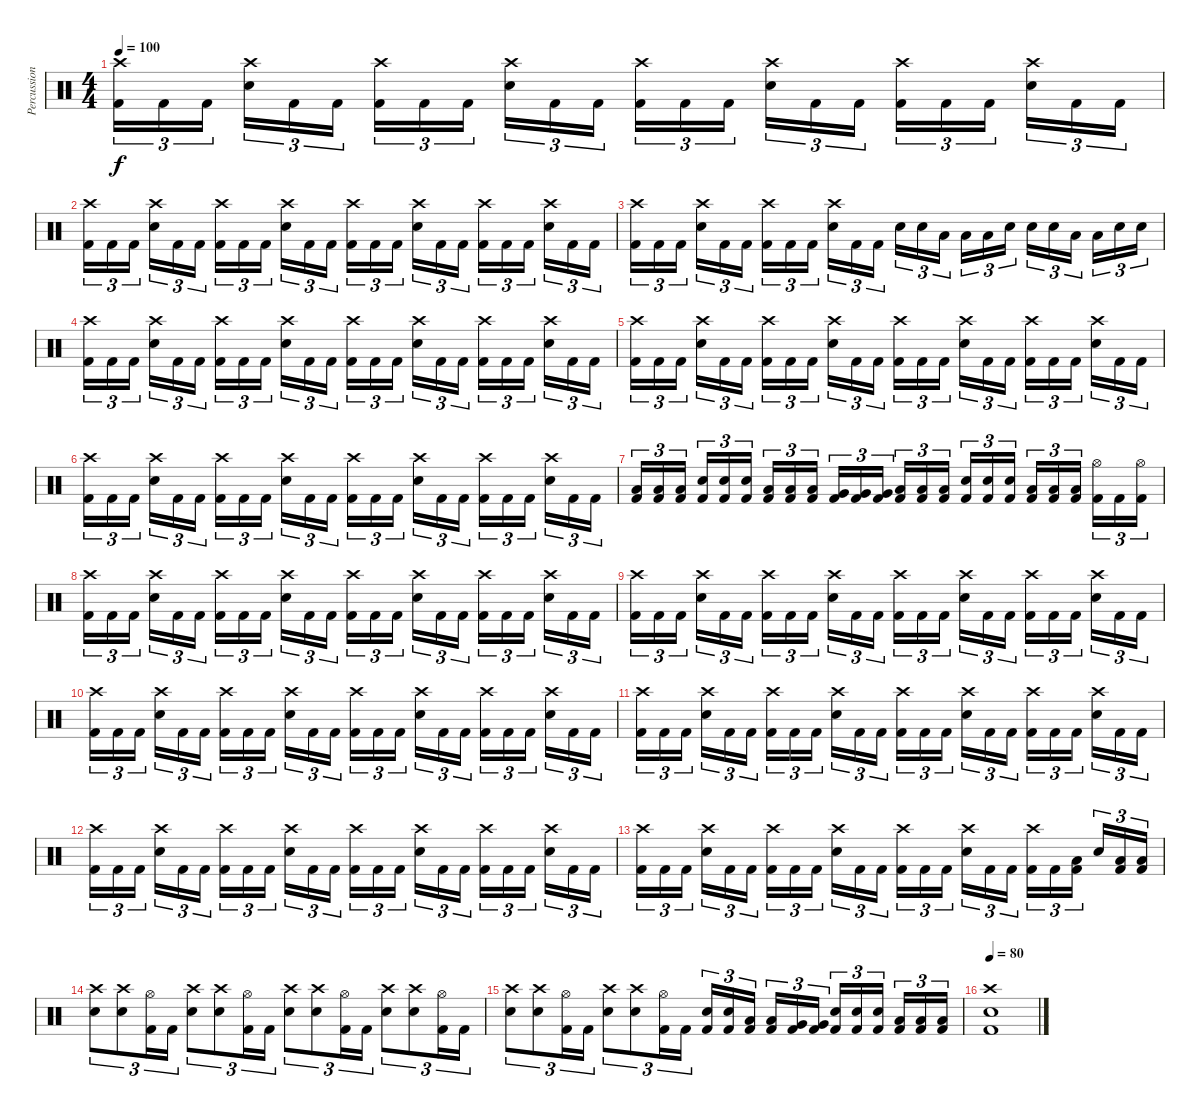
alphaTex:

\track ("Percussion" "Percussion") {instrument percussion}
\staff {score}
\articulation defaults
\ts (4 4)
\tempo 100
\clef neutral
\ks c
("Crash high (hit)" "Kick (hit) 2").16{tu (3 2) dy f} "Kick (hit) 2".16{tu (3 2)} "Kick (hit) 2".16{tu (3 2)} ("Crash high (hit)" "Electric Snare (hit)").16{tu (3 2)} "Kick (hit) 2".16{tu (3 2)} "Kick (hit) 2".16{tu (3 2)} ("Crash high (hit)" "Kick (hit) 2").16{tu (3 2)} "Kick (hit) 2".16{tu (3 2)} "Kick (hit) 2".16{tu (3 2)} ("Crash high (hit)" "Electric Snare (hit)").16{tu (3 2)} "Kick (hit) 2".16{tu (3 2)} "Kick (hit) 2".16{tu (3 2)} ("Crash high (hit)" "Kick (hit) 2").16{tu (3 2)} "Kick (hit) 2".16{tu (3 2)} "Kick (hit) 2".16{tu (3 2)} ("Crash high (hit)" "Electric Snare (hit)").16{tu (3 2)} "Kick (hit) 2".16{tu (3 2)} "Kick (hit) 2".16{tu (3 2)} ("Crash high (hit)" "Kick (hit) 2").16{tu (3 2)} "Kick (hit) 2".16{tu (3 2)} "Kick (hit) 2".16{tu (3 2)} ("Crash high (hit)" "Electric Snare (hit)").16{tu (3 2)} "Kick (hit) 2".16{tu (3 2)} "Kick (hit) 2".16{tu (3 2)} |
("Crash high (hit)" "Kick (hit) 2").16{tu (3 2)} "Kick (hit) 2".16{tu (3 2)} "Kick (hit) 2".16{tu (3 2)} ("Crash high (hit)" "Electric Snare (hit)").16{tu (3 2)} "Kick (hit) 2".16{tu (3 2)} "Kick (hit) 2".16{tu (3 2)} ("Crash high (hit)" "Kick (hit) 2").16{tu (3 2)} "Kick (hit) 2".16{tu (3 2)} "Kick (hit) 2".16{tu (3 2)} ("Crash high (hit)" "Electric Snare (hit)").16{tu (3 2)} "Kick (hit) 2".16{tu (3 2)} "Kick (hit) 2".16{tu (3 2)} ("Crash high (hit)" "Kick (hit) 2").16{tu (3 2)} "Kick (hit) 2".16{tu (3 2)} "Kick (hit) 2".16{tu (3 2)} ("Crash high (hit)" "Electric Snare (hit)").16{tu (3 2)} "Kick (hit) 2".16{tu (3 2)} "Kick (hit) 2".16{tu (3 2)} ("Crash high (hit)" "Kick (hit) 2").16{tu (3 2)} "Kick (hit) 2".16{tu (3 2)} "Kick (hit) 2".16{tu (3 2)} ("Crash high (hit)" "Electric Snare (hit)").16{tu (3 2)} "Kick (hit) 2".16{tu (3 2)} "Kick (hit) 2".16{tu (3 2)} |
("Crash high (hit)" "Kick (hit) 2").16{tu (3 2)} "Kick (hit) 2".16{tu (3 2)} "Kick (hit) 2".16{tu (3 2)} ("Crash high (hit)" "Electric Snare (hit)").16{tu (3 2)} "Kick (hit) 2".16{tu (3 2)} "Kick (hit) 2".16{tu (3 2)} ("Crash high (hit)" "Kick (hit) 2").16{tu (3 2)} "Kick (hit) 2".16{tu (3 2)} "Kick (hit) 2".16{tu (3 2)} ("Crash high (hit)" "Electric Snare (hit)").16{tu (3 2)} "Kick (hit) 2".16{tu (3 2)} "Kick (hit) 2".16{tu (3 2)} "Electric Snare (hit)".16{tu (3 2)} "Electric Snare (hit)".16{tu (3 2)} "Low Tom (hit)".16{tu (3 2)} "Low Tom (hit)".16{tu (3 2)} "Low Tom (hit)".16{tu (3 2)} "Electric Snare (hit)".16{tu (3 2)} "Electric Snare (hit)".16{tu (3 2)} "Electric Snare (hit)".16{tu (3 2)} "Low Tom (hit)".16{tu (3 2)} "Low Tom (hit)".16{tu (3 2)} "Electric Snare (hit)".16{tu (3 2)} "Electric Snare (hit)".16{tu (3 2)} |
("Crash high (hit)" "Kick (hit) 2").16{tu (3 2)} "Kick (hit) 2".16{tu (3 2)} "Kick (hit) 2".16{tu (3 2)} ("Crash high (hit)" "Electric Snare (hit)").16{tu (3 2)} "Kick (hit) 2".16{tu (3 2)} "Kick (hit) 2".16{tu (3 2)} ("Crash high (hit)" "Kick (hit) 2").16{tu (3 2)} "Kick (hit) 2".16{tu (3 2)} "Kick (hit) 2".16{tu (3 2)} ("Crash high (hit)" "Electric Snare (hit)").16{tu (3 2)} "Kick (hit) 2".16{tu (3 2)} "Kick (hit) 2".16{tu (3 2)} ("Crash high (hit)" "Kick (hit) 2").16{tu (3 2)} "Kick (hit) 2".16{tu (3 2)} "Kick (hit) 2".16{tu (3 2)} ("Crash high (hit)" "Electric Snare (hit)").16{tu (3 2)} "Kick (hit) 2".16{tu (3 2)} "Kick (hit) 2".16{tu (3 2)} ("Crash high (hit)" "Kick (hit) 2").16{tu (3 2)} "Kick (hit) 2".16{tu (3 2)} "Kick (hit) 2".16{tu (3 2)} ("Crash high (hit)" "Electric Snare (hit)").16{tu (3 2)} "Kick (hit) 2".16{tu (3 2)} "Kick (hit) 2".16{tu (3 2)} |
("Crash high (hit)" "Kick (hit) 2").16{tu (3 2)} "Kick (hit) 2".16{tu (3 2)} "Kick (hit) 2".16{tu (3 2)} ("Crash high (hit)" "Electric Snare (hit)").16{tu (3 2)} "Kick (hit) 2".16{tu (3 2)} "Kick (hit) 2".16{tu (3 2)} ("Crash high (hit)" "Kick (hit) 2").16{tu (3 2)} "Kick (hit) 2".16{tu (3 2)} "Kick (hit) 2".16{tu (3 2)} ("Crash high (hit)" "Electric Snare (hit)").16{tu (3 2)} "Kick (hit) 2".16{tu (3 2)} "Kick (hit) 2".16{tu (3 2)} ("Crash high (hit)" "Kick (hit) 2").16{tu (3 2)} "Kick (hit) 2".16{tu (3 2)} "Kick (hit) 2".16{tu (3 2)} ("Crash high (hit)" "Electric Snare (hit)").16{tu (3 2)} "Kick (hit) 2".16{tu (3 2)} "Kick (hit) 2".16{tu (3 2)} ("Crash high (hit)" "Kick (hit) 2").16{tu (3 2)} "Kick (hit) 2".16{tu (3 2)} "Kick (hit) 2".16{tu (3 2)} ("Crash high (hit)" "Electric Snare (hit)").16{tu (3 2)} "Kick (hit) 2".16{tu (3 2)} "Kick (hit) 2".16{tu (3 2)} |
("Crash high (hit)" "Kick (hit) 2").16{tu (3 2)} "Kick (hit) 2".16{tu (3 2)} "Kick (hit) 2".16{tu (3 2)} ("Crash high (hit)" "Electric Snare (hit)").16{tu (3 2)} "Kick (hit) 2".16{tu (3 2)} "Kick (hit) 2".16{tu (3 2)} ("Crash high (hit)" "Kick (hit) 2").16{tu (3 2)} "Kick (hit) 2".16{tu (3 2)} "Kick (hit) 2".16{tu (3 2)} ("Crash high (hit)" "Electric Snare (hit)").16{tu (3 2)} "Kick (hit) 2".16{tu (3 2)} "Kick (hit) 2".16{tu (3 2)} ("Crash high (hit)" "Kick (hit) 2").16{tu (3 2)} "Kick (hit) 2".16{tu (3 2)} "Kick (hit) 2".16{tu (3 2)} ("Crash high (hit)" "Electric Snare (hit)").16{tu (3 2)} "Kick (hit) 2".16{tu (3 2)} "Kick (hit) 2".16{tu (3 2)} ("Crash high (hit)" "Kick (hit) 2").16{tu (3 2)} "Kick (hit) 2".16{tu (3 2)} "Kick (hit) 2".16{tu (3 2)} ("Crash high (hit)" "Electric Snare (hit)").16{tu (3 2)} "Kick (hit) 2".16{tu (3 2)} "Kick (hit) 2".16{tu (3 2)} |
("Low Tom (hit)" "Kick (hit) 2").16{tu (3 2)} ("Low Tom (hit)" "Kick (hit) 2").16{tu (3 2)} ("Low Tom (hit)" "Kick (hit) 2").16{tu (3 2)} ("Electric Snare (hit)" "Kick (hit) 2").16{tu (3 2)} ("Electric Snare (hit)" "Kick (hit) 2").16{tu (3 2)} ("Electric Snare (hit)" "Kick (hit) 2").16{tu (3 2)} ("Low Tom (hit)" "Kick (hit) 2").16{tu (3 2)} ("Low Tom (hit)" "Kick (hit) 2").16{tu (3 2)} ("Low Tom (hit)" "Kick (hit) 2").16{tu (3 2)} ("Very Low Tom (hit)" "Kick (hit) 2").16{tu (3 2)} ("Very Low Tom (hit)" "Kick (hit) 2").16{tu (3 2)} ("Very Low Tom (hit)" "Kick (hit) 2").16{tu (3 2)} ("Low Tom (hit)" "Kick (hit) 2").16{tu (3 2)} ("Low Tom (hit)" "Kick (hit) 2").16{tu (3 2)} ("Low Tom (hit)" "Kick (hit) 2").16{tu (3 2)} ("Electric Snare (hit)" "Kick (hit) 2").16{tu (3 2)} ("Electric Snare (hit)" "Kick (hit) 2").16{tu (3 2)} ("Electric Snare (hit)" "Kick (hit) 2").16{tu (3 2)} ("Low Tom (hit)" "Kick (hit) 2").16{tu (3 2)} ("Low Tom (hit)" "Kick (hit) 2").16{tu (3 2)} ("Low Tom (hit)" "Kick (hit) 2").16{tu (3 2)} ("Hi-Hat (open)" "Kick (hit) 2").16{tu (3 2)} "Kick (hit) 2".16{tu (3 2)} ("Hi-Hat (open)" "Kick (hit) 2").16{tu (3 2)} |
("Crash high (hit)" "Kick (hit) 2").16{tu (3 2)} "Kick (hit) 2".16{tu (3 2)} "Kick (hit) 2".16{tu (3 2)} ("Crash high (hit)" "Electric Snare (hit)").16{tu (3 2)} "Kick (hit) 2".16{tu (3 2)} "Kick (hit) 2".16{tu (3 2)} ("Crash high (hit)" "Kick (hit) 2").16{tu (3 2)} "Kick (hit) 2".16{tu (3 2)} "Kick (hit) 2".16{tu (3 2)} ("Crash high (hit)" "Electric Snare (hit)").16{tu (3 2)} "Kick (hit) 2".16{tu (3 2)} "Kick (hit) 2".16{tu (3 2)} ("Crash high (hit)" "Kick (hit) 2").16{tu (3 2)} "Kick (hit) 2".16{tu (3 2)} "Kick (hit) 2".16{tu (3 2)} ("Crash high (hit)" "Electric Snare (hit)").16{tu (3 2)} "Kick (hit) 2".16{tu (3 2)} "Kick (hit) 2".16{tu (3 2)} ("Crash high (hit)" "Kick (hit) 2").16{tu (3 2)} "Kick (hit) 2".16{tu (3 2)} "Kick (hit) 2".16{tu (3 2)} ("Crash high (hit)" "Electric Snare (hit)").16{tu (3 2)} "Kick (hit) 2".16{tu (3 2)} "Kick (hit) 2".16{tu (3 2)} |
("Crash high (hit)" "Kick (hit) 2").16{tu (3 2)} "Kick (hit) 2".16{tu (3 2)} "Kick (hit) 2".16{tu (3 2)} ("Crash high (hit)" "Electric Snare (hit)").16{tu (3 2)} "Kick (hit) 2".16{tu (3 2)} "Kick (hit) 2".16{tu (3 2)} ("Crash high (hit)" "Kick (hit) 2").16{tu (3 2)} "Kick (hit) 2".16{tu (3 2)} "Kick (hit) 2".16{tu (3 2)} ("Crash high (hit)" "Electric Snare (hit)").16{tu (3 2)} "Kick (hit) 2".16{tu (3 2)} "Kick (hit) 2".16{tu (3 2)} ("Crash high (hit)" "Kick (hit) 2").16{tu (3 2)} "Kick (hit) 2".16{tu (3 2)} "Kick (hit) 2".16{tu (3 2)} ("Crash high (hit)" "Electric Snare (hit)").16{tu (3 2)} "Kick (hit) 2".16{tu (3 2)} "Kick (hit) 2".16{tu (3 2)} ("Crash high (hit)" "Kick (hit) 2").16{tu (3 2)} "Kick (hit) 2".16{tu (3 2)} "Kick (hit) 2".16{tu (3 2)} ("Crash high (hit)" "Electric Snare (hit)").16{tu (3 2)} "Kick (hit) 2".16{tu (3 2)} "Kick (hit) 2".16{tu (3 2)} |
("Crash high (hit)" "Kick (hit) 2").16{tu (3 2)} "Kick (hit) 2".16{tu (3 2)} "Kick (hit) 2".16{tu (3 2)} ("Crash high (hit)" "Electric Snare (hit)").16{tu (3 2)} "Kick (hit) 2".16{tu (3 2)} "Kick (hit) 2".16{tu (3 2)} ("Crash high (hit)" "Kick (hit) 2").16{tu (3 2)} "Kick (hit) 2".16{tu (3 2)} "Kick (hit) 2".16{tu (3 2)} ("Crash high (hit)" "Electric Snare (hit)").16{tu (3 2)} "Kick (hit) 2".16{tu (3 2)} "Kick (hit) 2".16{tu (3 2)} ("Crash high (hit)" "Kick (hit) 2").16{tu (3 2)} "Kick (hit) 2".16{tu (3 2)} "Kick (hit) 2".16{tu (3 2)} ("Crash high (hit)" "Electric Snare (hit)").16{tu (3 2)} "Kick (hit) 2".16{tu (3 2)} "Kick (hit) 2".16{tu (3 2)} ("Crash high (hit)" "Kick (hit) 2").16{tu (3 2)} "Kick (hit) 2".16{tu (3 2)} "Kick (hit) 2".16{tu (3 2)} ("Crash high (hit)" "Electric Snare (hit)").16{tu (3 2)} "Kick (hit) 2".16{tu (3 2)} "Kick (hit) 2".16{tu (3 2)} |
("Crash high (hit)" "Kick (hit) 2").16{tu (3 2)} "Kick (hit) 2".16{tu (3 2)} "Kick (hit) 2".16{tu (3 2)} ("Crash high (hit)" "Electric Snare (hit)").16{tu (3 2)} "Kick (hit) 2".16{tu (3 2)} "Kick (hit) 2".16{tu (3 2)} ("Crash high (hit)" "Kick (hit) 2").16{tu (3 2)} "Kick (hit) 2".16{tu (3 2)} "Kick (hit) 2".16{tu (3 2)} ("Crash high (hit)" "Electric Snare (hit)").16{tu (3 2)} "Kick (hit) 2".16{tu (3 2)} "Kick (hit) 2".16{tu (3 2)} ("Crash high (hit)" "Kick (hit) 2").16{tu (3 2)} "Kick (hit) 2".16{tu (3 2)} "Kick (hit) 2".16{tu (3 2)} ("Crash high (hit)" "Electric Snare (hit)").16{tu (3 2)} "Kick (hit) 2".16{tu (3 2)} "Kick (hit) 2".16{tu (3 2)} ("Crash high (hit)" "Kick (hit) 2").16{tu (3 2)} "Kick (hit) 2".16{tu (3 2)} "Kick (hit) 2".16{tu (3 2)} ("Crash high (hit)" "Electric Snare (hit)").16{tu (3 2)} "Kick (hit) 2".16{tu (3 2)} "Kick (hit) 2".16{tu (3 2)} |
("Crash high (hit)" "Kick (hit) 2").16{tu (3 2)} "Kick (hit) 2".16{tu (3 2)} "Kick (hit) 2".16{tu (3 2)} ("Crash high (hit)" "Electric Snare (hit)").16{tu (3 2)} "Kick (hit) 2".16{tu (3 2)} "Kick (hit) 2".16{tu (3 2)} ("Crash high (hit)" "Kick (hit) 2").16{tu (3 2)} "Kick (hit) 2".16{tu (3 2)} "Kick (hit) 2".16{tu (3 2)} ("Crash high (hit)" "Electric Snare (hit)").16{tu (3 2)} "Kick (hit) 2".16{tu (3 2)} "Kick (hit) 2".16{tu (3 2)} ("Crash high (hit)" "Kick (hit) 2").16{tu (3 2)} "Kick (hit) 2".16{tu (3 2)} "Kick (hit) 2".16{tu (3 2)} ("Crash high (hit)" "Electric Snare (hit)").16{tu (3 2)} "Kick (hit) 2".16{tu (3 2)} "Kick (hit) 2".16{tu (3 2)} ("Crash high (hit)" "Kick (hit) 2").16{tu (3 2)} "Kick (hit) 2".16{tu (3 2)} "Kick (hit) 2".16{tu (3 2)} ("Crash high (hit)" "Electric Snare (hit)").16{tu (3 2)} "Kick (hit) 2".16{tu (3 2)} "Kick (hit) 2".16{tu (3 2)} |
("Crash high (hit)" "Kick (hit) 2").16{tu (3 2)} "Kick (hit) 2".16{tu (3 2)} "Kick (hit) 2".16{tu (3 2)} ("Crash high (hit)" "Electric Snare (hit)").16{tu (3 2)} "Kick (hit) 2".16{tu (3 2)} "Kick (hit) 2".16{tu (3 2)} ("Crash high (hit)" "Kick (hit) 2").16{tu (3 2)} "Kick (hit) 2".16{tu (3 2)} "Kick (hit) 2".16{tu (3 2)} ("Crash high (hit)" "Electric Snare (hit)").16{tu (3 2)} "Kick (hit) 2".16{tu (3 2)} "Kick (hit) 2".16{tu (3 2)} ("Crash high (hit)" "Kick (hit) 2").16{tu (3 2)} "Kick (hit) 2".16{tu (3 2)} "Kick (hit) 2".16{tu (3 2)} ("Crash high (hit)" "Electric Snare (hit)").16{tu (3 2)} "Kick (hit) 2".16{tu (3 2)} "Kick (hit) 2".16{tu (3 2)} ("Crash high (hit)" "Kick (hit) 2").16{tu (3 2)} "Kick (hit) 2".16{tu (3 2)} ("Low Tom (hit)" "Kick (hit) 2").16{tu (3 2)} "Electric Snare (hit)".16{tu (3 2)} ("Low Tom (hit)" "Kick (hit) 2").16{tu (3 2)} ("Low Tom (hit)" "Kick (hit) 2").16{tu (3 2)} |
("Crash high (hit)" "Electric Snare (hit)").8{tu (3 2)} ("Crash high (hit)" "Electric Snare (hit)").8{tu (3 2)} ("Hi-Hat (open)" "Kick (hit) 2").16{tu (3 2)} "Kick (hit) 2".16{tu (3 2)} ("Crash high (hit)" "Electric Snare (hit)").8{tu (3 2)} ("Crash high (hit)" "Electric Snare (hit)").8{tu (3 2)} ("Hi-Hat (open)" "Kick (hit) 2").16{tu (3 2)} "Kick (hit) 2".16{tu (3 2)} ("Crash high (hit)" "Electric Snare (hit)").8{tu (3 2)} ("Crash high (hit)" "Electric Snare (hit)").8{tu (3 2)} ("Hi-Hat (open)" "Kick (hit) 2").16{tu (3 2)} "Kick (hit) 2".16{tu (3 2)} ("Crash high (hit)" "Electric Snare (hit)").8{tu (3 2)} ("Crash high (hit)" "Electric Snare (hit)").8{tu (3 2)} ("Hi-Hat (open)" "Kick (hit) 2").16{tu (3 2)} "Kick (hit) 2".16{tu (3 2)} |
("Crash high (hit)" "Electric Snare (hit)").8{tu (3 2)} ("Crash high (hit)" "Electric Snare (hit)").8{tu (3 2)} ("Hi-Hat (open)" "Kick (hit) 2").16{tu (3 2)} "Kick (hit) 2".16{tu (3 2)} ("Crash high (hit)" "Electric Snare (hit)").8{tu (3 2)} ("Crash high (hit)" "Electric Snare (hit)").8{tu (3 2)} ("Hi-Hat (open)" "Kick (hit) 2").16{tu (3 2)} "Kick (hit) 2".16{tu (3 2)} ("Electric Snare (hit)" "Kick (hit) 2").16{tu (3 2)} ("Electric Snare (hit)" "Kick (hit) 2").16{tu (3 2)} ("Low Tom (hit)" "Kick (hit) 2").16{tu (3 2)} ("Low Tom (hit)" "Kick (hit) 2").16{tu (3 2)} ("Very Low Tom (hit)" "Kick (hit) 2").16{tu (3 2)} ("Very Low Tom (hit)" "Kick (hit) 2").16{tu (3 2)} ("Electric Snare (hit)" "Kick (hit) 2").16{tu (3 2)} ("Electric Snare (hit)" "Kick (hit) 2").16{tu (3 2)} ("Electric Snare (hit)" "Kick (hit) 2").16{tu (3 2)} ("Low Tom (hit)" "Kick (hit) 2").16{tu (3 2)} ("Low Tom (hit)" "Kick (hit) 2").16{tu (3 2)} ("Low Tom (hit)" "Kick (hit) 2").16{tu (3 2)} |
\tempo 80
("Crash high (hit)" "Electric Snare (hit)" "Kick (hit) 2").1
